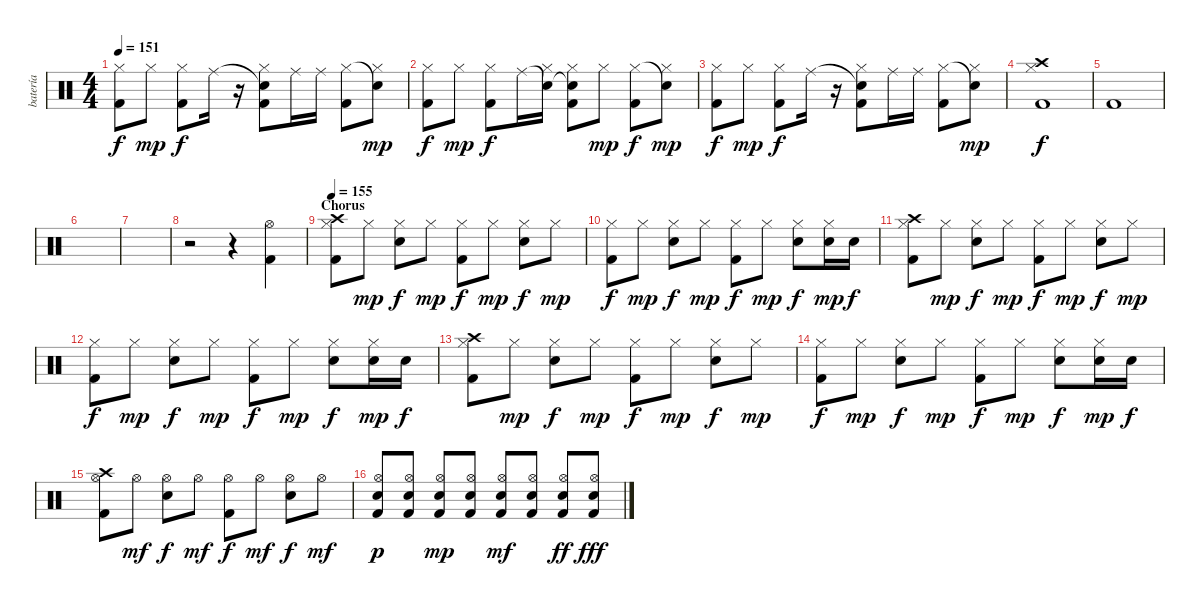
\track ("batería" "batería") {instrument percussion}
\staff {score}
\articulation defaults
\ts (4 4)
\tempo 151
\clef neutral
\ks c
("Hi-Hat (closed)" "Kick (hit) 2").8{dy f} "Hi-Hat (closed)".8{dy mp} ("Hi-Hat (closed)" "Kick (hit) 2").8{dy f} "Ride (middle)".16 r.16 ("Snare (hit)"{t} "Hi-Hat (closed)" "Kick (hit) 2").8 "Ride (middle)".16 "Ride (middle)".16 ("Hi-Hat (closed)" "Kick (hit) 2").8 ("Snare (hit)"{t} "Hi-Hat (closed)").8{dy mp} |
("Hi-Hat (closed)" "Kick (hit) 2").8{dy f} "Hi-Hat (closed)".8{dy mp} ("Hi-Hat (closed)" "Kick (hit) 2").8{dy f} "Ride (middle)".16 ("Snare (hit)"{t} "Hi-Hat (closed)").16 ("Snare (hit)"{t} "Hi-Hat (closed)" "Kick (hit) 2").8 "Hi-Hat (closed)".8{dy mp} ("Hi-Hat (closed)" "Kick (hit) 2").8{dy f} ("Snare (hit)"{t} "Hi-Hat (closed)").8{dy mp} |
("Hi-Hat (closed)" "Kick (hit) 2").8{dy f} "Hi-Hat (closed)".8{dy mp} ("Hi-Hat (closed)" "Kick (hit) 2").8{dy f} "Ride (middle)".16 r.16 ("Snare (hit)"{t} "Hi-Hat (closed)" "Kick (hit) 2").8 "Ride (middle)".16 "Ride (middle)".16 ("Hi-Hat (closed)" "Kick (hit) 2").8 ("Snare (hit)"{t} "Hi-Hat (closed)").8{dy mp} |
("Crash high (hit)" "Hi-Hat (closed)" "Kick (hit) 2").1{dy f} |
"Kick (hit) 2".1 |
|
|
r.2 r.4 ("Hi-Hat (open)" "Kick (hit) 2").4 |
\section ("" "Chorus")
\tempo 155
("Crash high (hit)" "Hi-Hat (closed)" "Kick (hit) 2").8 "Hi-Hat (closed)".8{dy mp} ("Hi-Hat (closed)" "Electric Snare (hit)").8{dy f} "Hi-Hat (closed)".8{dy mp} ("Hi-Hat (closed)" "Kick (hit) 2").8{dy f} "Hi-Hat (closed)".8{dy mp} ("Hi-Hat (closed)" "Electric Snare (hit)").8{dy f} "Hi-Hat (closed)".8{dy mp} |
("Hi-Hat (closed)" "Kick (hit) 2").8{dy f} "Hi-Hat (closed)".8{dy mp} ("Hi-Hat (closed)" "Electric Snare (hit)").8{dy f} "Hi-Hat (closed)".8{dy mp} ("Hi-Hat (closed)" "Kick (hit) 2").8{dy f} "Hi-Hat (closed)".8{dy mp} ("Hi-Hat (closed)" "Electric Snare (hit)").8{dy f} ("Hi-Hat (closed)" "Electric Snare (hit)").16{dy mp} "Electric Snare (hit)".16{dy f} |
("Crash high (hit)" "Hi-Hat (closed)" "Kick (hit) 2").8 "Hi-Hat (closed)".8{dy mp} ("Hi-Hat (closed)" "Electric Snare (hit)").8{dy f} "Hi-Hat (closed)".8{dy mp} ("Hi-Hat (closed)" "Kick (hit) 2").8{dy f} "Hi-Hat (closed)".8{dy mp} ("Hi-Hat (closed)" "Electric Snare (hit)").8{dy f} "Hi-Hat (closed)".8{dy mp} |
("Hi-Hat (closed)" "Kick (hit) 2").8{dy f} "Hi-Hat (closed)".8{dy mp} ("Hi-Hat (closed)" "Electric Snare (hit)").8{dy f} "Hi-Hat (closed)".8{dy mp} ("Hi-Hat (closed)" "Kick (hit) 2").8{dy f} "Hi-Hat (closed)".8{dy mp} ("Hi-Hat (closed)" "Electric Snare (hit)").8{dy f} ("Hi-Hat (closed)" "Electric Snare (hit)").16{dy mp} "Electric Snare (hit)".16{dy f} |
("Crash high (hit)" "Hi-Hat (closed)" "Kick (hit) 2").8 "Hi-Hat (closed)".8{dy mp} ("Hi-Hat (closed)" "Electric Snare (hit)").8{dy f} "Hi-Hat (closed)".8{dy mp} ("Hi-Hat (closed)" "Kick (hit) 2").8{dy f} "Hi-Hat (closed)".8{dy mp} ("Hi-Hat (closed)" "Electric Snare (hit)").8{dy f} "Hi-Hat (closed)".8{dy mp} |
("Hi-Hat (closed)" "Kick (hit) 2").8{dy f} "Hi-Hat (closed)".8{dy mp} ("Hi-Hat (closed)" "Electric Snare (hit)").8{dy f} "Hi-Hat (closed)".8{dy mp} ("Hi-Hat (closed)" "Kick (hit) 2").8{dy f} "Hi-Hat (closed)".8{dy mp} ("Hi-Hat (closed)" "Electric Snare (hit)").8{dy f} ("Hi-Hat (closed)" "Electric Snare (hit)").16{dy mp} "Electric Snare (hit)".16{dy f} |
("Crash high (hit)" "Hi-Hat (open)" "Kick (hit) 2").8 "Hi-Hat (open)".8{dy mf} ("Hi-Hat (open)" "Electric Snare (hit)").8{dy f} "Hi-Hat (open)".8{dy mf} ("Hi-Hat (open)" "Kick (hit) 2").8{dy f} "Hi-Hat (open)".8{dy mf} ("Hi-Hat (open)" "Electric Snare (hit)").8{dy f} "Hi-Hat (open)".8{dy mf} |
("Hi-Hat (open)" "Electric Snare (hit)" "Kick (hit) 2").8{dy p} ("Hi-Hat (open)" "Electric Snare (hit)" "Kick (hit) 2").8 ("Hi-Hat (open)" "Electric Snare (hit)" "Kick (hit) 2").8{dy mp} ("Hi-Hat (open)" "Electric Snare (hit)" "Kick (hit) 2").8 ("Hi-Hat (open)" "Electric Snare (hit)" "Kick (hit) 2").8{dy mf} ("Hi-Hat (open)" "Electric Snare (hit)" "Kick (hit) 2").8 ("Hi-Hat (open)" "Electric Snare (hit)" "Kick (hit) 2").8{dy ff} ("Hi-Hat (open)" "Electric Snare (hit)" "Kick (hit) 2").8{dy fff}
